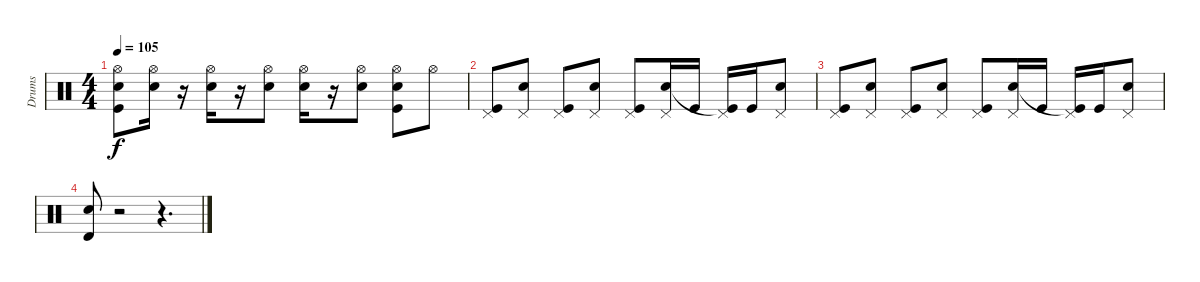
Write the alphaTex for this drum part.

\track ("Drums" "Drums") {instrument percussion}
\staff {score}
\articulation defaults
\ts (4 4)
\tempo 105
\clef neutral
\ks c
("Hi-Hat (open)" "Electric Snare (hit)" "Kick (hit)").8{dy f} ("Hi-Hat (open)" "Electric Snare (hit)").16 r.16 ("Hi-Hat (open)" "Electric Snare (hit)").16 r.16 ("Hi-Hat (open)" "Electric Snare (hit)").8 ("Hi-Hat (open)" "Electric Snare (hit)").16 r.16 ("Hi-Hat (open)" "Electric Snare (hit)").8 ("Hi-Hat (open)" "Electric Snare (hit)" "Kick (hit)").8 "Hi-Hat (open)".8 |
("Pedal Hi-Hat (hit)" "Kick (hit)").8 ("Pedal Hi-Hat (hit)" "Electric Snare (hit)").8 ("Pedal Hi-Hat (hit)" "Kick (hit)").8 ("Pedal Hi-Hat (hit)" "Electric Snare (hit)").8 ("Pedal Hi-Hat (hit)" "Kick (hit)").8 ("Pedal Hi-Hat (hit)" "Electric Snare (hit)").16 "Kick (hit)".16 ("Pedal Hi-Hat (hit)" "Kick (hit)"{t}).16 "Kick (hit)".16 ("Pedal Hi-Hat (hit)" "Electric Snare (hit)").8 |
("Pedal Hi-Hat (hit)" "Kick (hit)").8 ("Pedal Hi-Hat (hit)" "Electric Snare (hit)").8 ("Pedal Hi-Hat (hit)" "Kick (hit)").8 ("Pedal Hi-Hat (hit)" "Electric Snare (hit)").8 ("Pedal Hi-Hat (hit)" "Kick (hit)").8 ("Pedal Hi-Hat (hit)" "Electric Snare (hit)").16 "Kick (hit)".16 ("Pedal Hi-Hat (hit)" "Kick (hit)"{t}).16 "Kick (hit)".16 ("Pedal Hi-Hat (hit)" "Electric Snare (hit)").8 |
("Electric Snare (hit)" "Timbale high (hit)").8 r.2 r.4{d}
